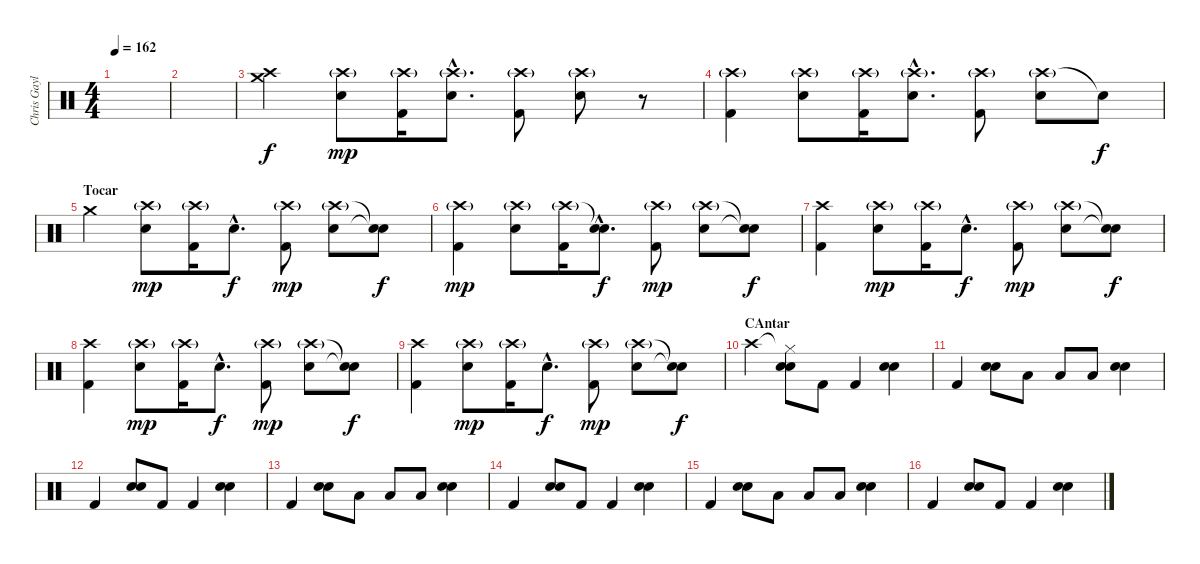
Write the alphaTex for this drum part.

\track ("Chris Gaylor" "Chris Gayl") {instrument percussion}
\staff {score}
\articulation defaults
\ts (4 4)
\tempo 162
\clef neutral
\ks c
|
|
("Crash high (hit)" "Crash medium (hit)").4 ("Crash high (hit)"{g} "Snare (hit) 2").8{dy mp} ("Crash high (hit)"{g} "Kick (hit) 2").16 ("Crash high (hit)"{g hac} "Snare (hit) 2"{hac}).8{d} ("Crash high (hit)"{g} "Kick (hit) 2").8 ("Crash high (hit)"{g} "Snare (hit) 2").8 r.8 |
("Crash high (hit)"{g} "Kick (hit) 2").4 ("Crash high (hit)"{g} "Snare (hit) 2").8 ("Crash high (hit)"{g} "Kick (hit) 2").16 ("Crash high (hit)"{g hac} "Snare (hit) 2"{hac}).8{d} ("Crash high (hit)"{g} "Kick (hit) 2").8 ("Crash high (hit)"{g} "Snare (hit) 2").8 "Snare (hit)"{t}.8{dy f} |
\section ("" "Tocar")
"Crash medium (hit)".4 ("Crash high (hit)"{g} "Snare (hit) 2").8{dy mp} ("Crash high (hit)"{g} "Kick (hit) 2").16 "Snare (hit) 2"{hac}.8{d dy f} ("Crash high (hit)"{g} "Kick (hit) 2").8{dy mp} ("Crash high (hit)"{g} "Snare (hit) 2").8 ("Snare (hit)"{t} "Snare (hit)"{t}).8{dy f} |
("Crash high (hit)"{g} "Kick (hit) 2").4{dy mp} ("Crash high (hit)"{g} "Snare (hit) 2").8 ("Crash high (hit)"{g} "Kick (hit) 2").16 ("Snare (hit)"{hac t} "Snare (hit) 2"{hac}).8{d dy f} ("Crash high (hit)"{g} "Kick (hit) 2").8{dy mp} ("Crash high (hit)"{g} "Snare (hit) 2").8 ("Snare (hit)"{t} "Snare (hit)"{t}).8{dy f} |
("Crash high (hit)" "Kick (hit) 2").4 ("Crash high (hit)"{g} "Snare (hit) 2").8{dy mp} ("Crash high (hit)"{g} "Kick (hit) 2").16 "Snare (hit) 2"{hac}.8{d dy f} ("Crash high (hit)"{g} "Kick (hit) 2").8{dy mp} ("Crash high (hit)"{g} "Snare (hit) 2").8 ("Snare (hit)"{t} "Snare (hit)"{t}).8{dy f} |
("Crash high (hit)" "Kick (hit) 2").4 ("Crash high (hit)"{g} "Snare (hit) 2").8{dy mp} ("Crash high (hit)"{g} "Kick (hit) 2").16 "Snare (hit) 2"{hac}.8{d dy f} ("Crash high (hit)"{g} "Kick (hit) 2").8{dy mp} ("Crash high (hit)"{g} "Snare (hit) 2").8 ("Snare (hit)"{t} "Snare (hit)"{t}).8{dy f} |
("Crash high (hit)" "Kick (hit) 2").4 ("Crash high (hit)"{g} "Snare (hit) 2").8{dy mp} ("Crash high (hit)"{g} "Kick (hit) 2").16 "Snare (hit) 2"{hac}.8{d dy f} ("Crash high (hit)"{g} "Kick (hit) 2").8{dy mp} ("Crash high (hit)"{g} "Snare (hit) 2").8 ("Snare (hit)"{t} "Snare (hit)"{t}).8{dy f} |
\section ("" "CAntar")
"Crash high (hit)".4 ("Hi-Hat (closed)"{t} "Snare (hit) 2" "Snare (hit) 2").8 "Kick (hit) 2".8 "Kick (hit) 2".4 ("Snare (hit) 2" "Snare (hit) 2").4 |
"Kick (hit) 2".4 ("Snare (hit) 2" "Snare (hit) 2").8 "Low Floor Tom (hit)".8 "Low Floor Tom (hit)".8 "Low Tom (hit)".8 ("Snare (hit) 2" "Snare (hit) 2").4 |
"Kick (hit) 2".4 ("Snare (hit) 2" "Snare (hit) 2").8 "Kick (hit) 2".8 "Kick (hit) 2".4 ("Snare (hit) 2" "Snare (hit) 2").4 |
"Kick (hit) 2".4 ("Snare (hit) 2" "Snare (hit) 2").8 "Low Floor Tom (hit)".8 "Low Floor Tom (hit)".8 "Low Tom (hit)".8 ("Snare (hit) 2" "Snare (hit) 2").4 |
"Kick (hit) 2".4 ("Snare (hit) 2" "Snare (hit) 2").8 "Kick (hit) 2".8 "Kick (hit) 2".4 ("Snare (hit) 2" "Snare (hit) 2").4 |
"Kick (hit) 2".4 ("Snare (hit) 2" "Snare (hit) 2").8 "Low Floor Tom (hit)".8 "Low Floor Tom (hit)".8 "Low Tom (hit)".8 ("Snare (hit) 2" "Snare (hit) 2").4 |
"Kick (hit) 2".4 ("Snare (hit) 2" "Snare (hit) 2").8 "Kick (hit) 2".8 "Kick (hit) 2".4 ("Snare (hit) 2" "Snare (hit) 2").4
